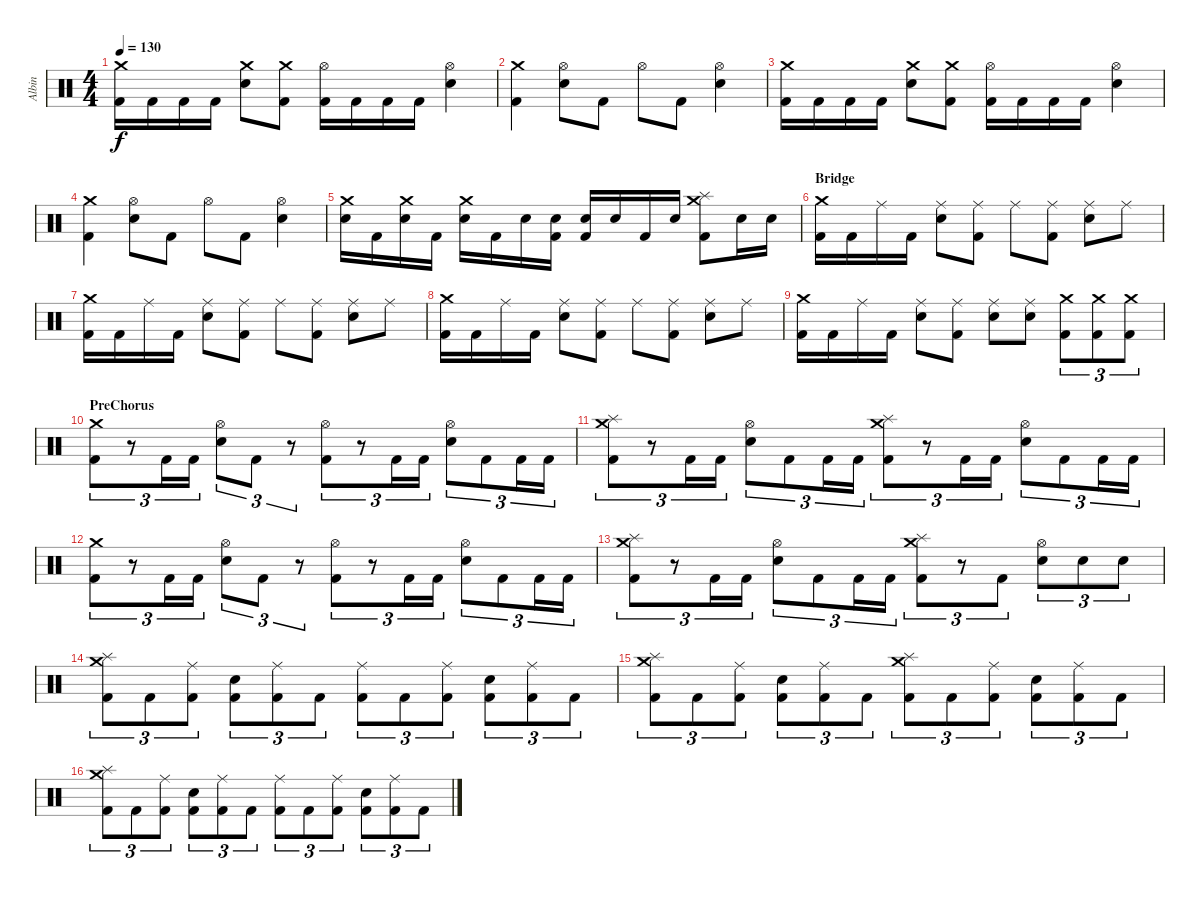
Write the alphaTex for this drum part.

\track ("Albin" "Albin") {instrument percussion}
\staff {score}
\articulation defaults
\ts (4 4)
\tempo 130
\clef neutral
\ks c
("Crash medium (hit)" "Kick (hit) 2").16{dy f} "Kick (hit) 2".16 "Kick (hit) 2".16 "Kick (hit) 2".16 ("Crash medium (hit)" "Electric Snare (hit)").8 ("Crash medium (hit)" "Kick (hit) 2").8 ("Hi-Hat (open)" "Kick (hit) 2").16 "Kick (hit) 2".16 "Kick (hit) 2".16 "Kick (hit) 2".16 ("Hi-Hat (open)" "Electric Snare (hit)").4 |
("Crash medium (hit)" "Kick (hit) 2").4 ("Hi-Hat (open)" "Electric Snare (hit)").8 "Kick (hit) 2".8 "Hi-Hat (open)".8 "Kick (hit) 2".8 ("Hi-Hat (open)" "Electric Snare (hit)").4 |
("Crash medium (hit)" "Kick (hit) 2").16 "Kick (hit) 2".16 "Kick (hit) 2".16 "Kick (hit) 2".16 ("Crash medium (hit)" "Electric Snare (hit)").8 ("Crash medium (hit)" "Kick (hit) 2").8 ("Hi-Hat (open)" "Kick (hit) 2").16 "Kick (hit) 2".16 "Kick (hit) 2".16 "Kick (hit) 2".16 ("Hi-Hat (open)" "Electric Snare (hit)").4 |
("Crash medium (hit)" "Kick (hit) 2").4 ("Hi-Hat (open)" "Electric Snare (hit)").8 "Kick (hit) 2".8 "Hi-Hat (open)".8 "Kick (hit) 2".8 ("Hi-Hat (open)" "Electric Snare (hit)").4 |
("Crash medium (hit)" "Electric Snare (hit)").16 "Kick (hit) 2".16 ("Crash medium (hit)" "Electric Snare (hit)").16 "Kick (hit) 2".16 ("Crash medium (hit)" "Electric Snare (hit)").16 "Kick (hit) 2".16 "Electric Snare (hit)".16 ("Electric Snare (hit)" "Kick (hit) 2").16 ("Electric Snare (hit)" "Kick (hit) 2").16 "Electric Snare (hit)".16 "Kick (hit) 2".16 "Electric Snare (hit)".16 ("Crash medium (hit)" "Splash (hit)" "Kick (hit) 2").8 "Electric Snare (hit)".16 "Electric Snare (hit)".16 |
\section ("" "Bridge")
("Crash medium (hit)" "Kick (hit) 2").16 "Kick (hit) 2".16 "Ride (middle)".16 "Kick (hit) 2".16 ("Ride (middle)" "Electric Snare (hit)").8 ("Ride (middle)" "Kick (hit) 2").8 "Ride (middle)".8 ("Ride (middle)" "Kick (hit) 2").8 ("Ride (middle)" "Electric Snare (hit)").8 "Ride (middle)".8 |
("Crash medium (hit)" "Kick (hit) 2").16 "Kick (hit) 2".16 "Ride (middle)".16 "Kick (hit) 2".16 ("Ride (middle)" "Electric Snare (hit)").8 ("Ride (middle)" "Kick (hit) 2").8 "Ride (middle)".8 ("Ride (middle)" "Kick (hit) 2").8 ("Ride (middle)" "Electric Snare (hit)").8 "Ride (middle)".8 |
("Crash medium (hit)" "Kick (hit) 2").16 "Kick (hit) 2".16 "Ride (middle)".16 "Kick (hit) 2".16 ("Ride (middle)" "Electric Snare (hit)").8 ("Ride (middle)" "Kick (hit) 2").8 "Ride (middle)".8 ("Ride (middle)" "Kick (hit) 2").8 ("Ride (middle)" "Electric Snare (hit)").8 "Ride (middle)".8 |
("Crash medium (hit)" "Kick (hit) 2").16 "Kick (hit) 2".16 "Ride (middle)".16 "Kick (hit) 2".16 ("Ride (middle)" "Electric Snare (hit)").8 ("Ride (middle)" "Kick (hit) 2").8 ("Ride (middle)" "Electric Snare (hit)").8 ("Ride (middle)" "Electric Snare (hit)").8 ("Crash medium (hit)" "Kick (hit) 2").8{tu (3 2)} ("Crash medium (hit)" "Kick (hit) 2").8{tu (3 2)} ("Crash medium (hit)" "Kick (hit) 2").8{tu (3 2)} |
\section ("" "PreChorus")
("Crash medium (hit)" "Kick (hit) 2").8{tu (3 2)} r.8{tu (3 2)} "Kick (hit) 2".16{tu (3 2)} "Kick (hit) 2".16{tu (3 2)} ("Hi-Hat (open)" "Electric Snare (hit)").8{tu (3 2)} "Kick (hit) 2".8{tu (3 2)} r.8{tu (3 2)} ("Hi-Hat (open)" "Kick (hit) 2").8{tu (3 2)} r.8{tu (3 2)} "Kick (hit) 2".16{tu (3 2)} "Kick (hit) 2".16{tu (3 2)} ("Hi-Hat (open)" "Electric Snare (hit)").8{tu (3 2)} "Kick (hit) 2".8{tu (3 2)} "Kick (hit) 2".16{tu (3 2)} "Kick (hit) 2".16{tu (3 2)} |
("Crash medium (hit)" "Splash (hit)" "Kick (hit) 2").8{tu (3 2)} r.8{tu (3 2)} "Kick (hit) 2".16{tu (3 2)} "Kick (hit) 2".16{tu (3 2)} ("Hi-Hat (open)" "Electric Snare (hit)").8{tu (3 2)} "Kick (hit) 2".8{tu (3 2)} "Kick (hit) 2".16{tu (3 2)} "Kick (hit) 2".16{tu (3 2)} ("Crash medium (hit)" "Splash (hit)" "Kick (hit) 2").8{tu (3 2)} r.8{tu (3 2)} "Kick (hit) 2".16{tu (3 2)} "Kick (hit) 2".16{tu (3 2)} ("Hi-Hat (open)" "Electric Snare (hit)").8{tu (3 2)} "Kick (hit) 2".8{tu (3 2)} "Kick (hit) 2".16{tu (3 2)} "Kick (hit) 2".16{tu (3 2)} |
("Crash medium (hit)" "Kick (hit) 2").8{tu (3 2)} r.8{tu (3 2)} "Kick (hit) 2".16{tu (3 2)} "Kick (hit) 2".16{tu (3 2)} ("Hi-Hat (open)" "Electric Snare (hit)").8{tu (3 2)} "Kick (hit) 2".8{tu (3 2)} r.8{tu (3 2)} ("Hi-Hat (open)" "Kick (hit) 2").8{tu (3 2)} r.8{tu (3 2)} "Kick (hit) 2".16{tu (3 2)} "Kick (hit) 2".16{tu (3 2)} ("Hi-Hat (open)" "Electric Snare (hit)").8{tu (3 2)} "Kick (hit) 2".8{tu (3 2)} "Kick (hit) 2".16{tu (3 2)} "Kick (hit) 2".16{tu (3 2)} |
("Crash medium (hit)" "Splash (hit)" "Kick (hit) 2").8{tu (3 2)} r.8{tu (3 2)} "Kick (hit) 2".16{tu (3 2)} "Kick (hit) 2".16{tu (3 2)} ("Hi-Hat (open)" "Electric Snare (hit)").8{tu (3 2)} "Kick (hit) 2".8{tu (3 2)} "Kick (hit) 2".16{tu (3 2)} "Kick (hit) 2".16{tu (3 2)} ("Crash medium (hit)" "Splash (hit)" "Kick (hit) 2").8{tu (3 2)} r.8{tu (3 2)} "Kick (hit) 2".8{tu (3 2)} ("Hi-Hat (open)" "Electric Snare (hit)").8{tu (3 2)} "Electric Snare (hit)".8{tu (3 2)} "Electric Snare (hit)".8{tu (3 2)} |
("Crash medium (hit)" "Splash (hit)" "Kick (hit) 2").8{tu (3 2)} "Kick (hit) 2".8{tu (3 2)} ("Ride (middle)" "Kick (hit) 2").8{tu (3 2)} ("Electric Snare (hit)" "Kick (hit) 2").8{tu (3 2)} ("Ride (middle)" "Kick (hit) 2").8{tu (3 2)} "Kick (hit) 2".8{tu (3 2)} ("Ride (middle)" "Kick (hit) 2").8{tu (3 2)} "Kick (hit) 2".8{tu (3 2)} ("Ride (middle)" "Kick (hit) 2").8{tu (3 2)} ("Electric Snare (hit)" "Kick (hit) 2").8{tu (3 2)} ("Ride (middle)" "Kick (hit) 2").8{tu (3 2)} "Kick (hit) 2".8{tu (3 2)} |
("Crash medium (hit)" "Splash (hit)" "Kick (hit) 2").8{tu (3 2)} "Kick (hit) 2".8{tu (3 2)} ("Ride (middle)" "Kick (hit) 2").8{tu (3 2)} ("Electric Snare (hit)" "Kick (hit) 2").8{tu (3 2)} ("Ride (middle)" "Kick (hit) 2").8{tu (3 2)} "Kick (hit) 2".8{tu (3 2)} ("Crash medium (hit)" "Splash (hit)" "Kick (hit) 2").8{tu (3 2)} "Kick (hit) 2".8{tu (3 2)} ("Ride (middle)" "Kick (hit) 2").8{tu (3 2)} ("Electric Snare (hit)" "Kick (hit) 2").8{tu (3 2)} ("Ride (middle)" "Kick (hit) 2").8{tu (3 2)} "Kick (hit) 2".8{tu (3 2)} |
("Crash medium (hit)" "Splash (hit)" "Kick (hit) 2").8{tu (3 2)} "Kick (hit) 2".8{tu (3 2)} ("Ride (middle)" "Kick (hit) 2").8{tu (3 2)} ("Electric Snare (hit)" "Kick (hit) 2").8{tu (3 2)} ("Ride (middle)" "Kick (hit) 2").8{tu (3 2)} "Kick (hit) 2".8{tu (3 2)} ("Ride (middle)" "Kick (hit) 2").8{tu (3 2)} "Kick (hit) 2".8{tu (3 2)} ("Ride (middle)" "Kick (hit) 2").8{tu (3 2)} ("Electric Snare (hit)" "Kick (hit) 2").8{tu (3 2)} ("Ride (middle)" "Kick (hit) 2").8{tu (3 2)} "Kick (hit) 2".8{tu (3 2)}
